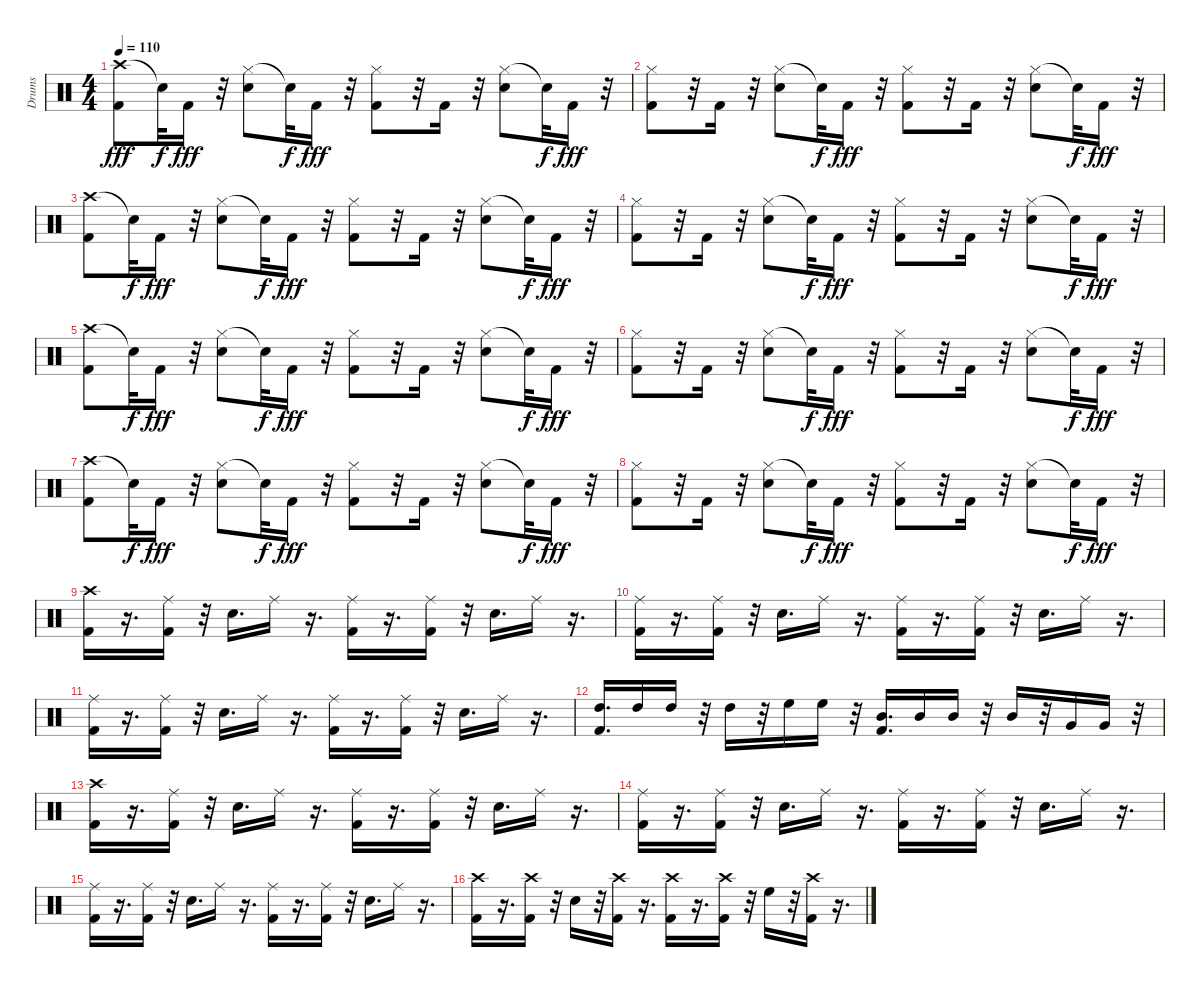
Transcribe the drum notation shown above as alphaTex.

\track ("Drums" "Drums") {instrument percussion}
\staff {score}
\articulation defaults
\ts (4 4)
\tempo 110
\clef neutral
\ks c
("Crash high (hit)" "Kick (hit) 2").8{dy fff} "Snare (hit)"{t}.32{dy f} "Kick (hit) 2".16{dy fff} r.32 ("Hi-Hat (closed)" "Snare (hit) 2").8 "Snare (hit)"{t}.32{dy f} "Kick (hit) 2".16{dy fff} r.32 ("Kick (hit) 2" "Hi-Hat (closed)").8 r.32 "Kick (hit) 2".16 r.32 ("Hi-Hat (closed)" "Snare (hit) 2").8 "Snare (hit)"{t}.32{dy f} "Kick (hit) 2".16{dy fff} r.32 |
("Kick (hit) 2" "Hi-Hat (closed)").8 r.32 "Kick (hit) 2".16 r.32 ("Hi-Hat (closed)" "Snare (hit) 2").8 "Snare (hit)"{t}.32{dy f} "Kick (hit) 2".16{dy fff} r.32 ("Kick (hit) 2" "Hi-Hat (closed)").8 r.32 "Kick (hit) 2".16 r.32 ("Hi-Hat (closed)" "Snare (hit) 2").8 "Snare (hit)"{t}.32{dy f} "Kick (hit) 2".16{dy fff} r.32 |
("Crash high (hit)" "Kick (hit) 2").8 "Snare (hit)"{t}.32{dy f} "Kick (hit) 2".16{dy fff} r.32 ("Hi-Hat (closed)" "Snare (hit) 2").8 "Snare (hit)"{t}.32{dy f} "Kick (hit) 2".16{dy fff} r.32 ("Kick (hit) 2" "Hi-Hat (closed)").8 r.32 "Kick (hit) 2".16 r.32 ("Hi-Hat (closed)" "Snare (hit) 2").8 "Snare (hit)"{t}.32{dy f} "Kick (hit) 2".16{dy fff} r.32 |
("Kick (hit) 2" "Hi-Hat (closed)").8 r.32 "Kick (hit) 2".16 r.32 ("Hi-Hat (closed)" "Snare (hit) 2").8 "Snare (hit)"{t}.32{dy f} "Kick (hit) 2".16{dy fff} r.32 ("Kick (hit) 2" "Hi-Hat (closed)").8 r.32 "Kick (hit) 2".16 r.32 ("Hi-Hat (closed)" "Snare (hit) 2").8 "Snare (hit)"{t}.32{dy f} "Kick (hit) 2".16{dy fff} r.32 |
("Crash high (hit)" "Kick (hit) 2").8 "Snare (hit)"{t}.32{dy f} "Kick (hit) 2".16{dy fff} r.32 ("Hi-Hat (closed)" "Snare (hit) 2").8 "Snare (hit)"{t}.32{dy f} "Kick (hit) 2".16{dy fff} r.32 ("Kick (hit) 2" "Hi-Hat (closed)").8 r.32 "Kick (hit) 2".16 r.32 ("Hi-Hat (closed)" "Snare (hit) 2").8 "Snare (hit)"{t}.32{dy f} "Kick (hit) 2".16{dy fff} r.32 |
("Kick (hit) 2" "Hi-Hat (closed)").8 r.32 "Kick (hit) 2".16 r.32 ("Hi-Hat (closed)" "Snare (hit) 2").8 "Snare (hit)"{t}.32{dy f} "Kick (hit) 2".16{dy fff} r.32 ("Kick (hit) 2" "Hi-Hat (closed)").8 r.32 "Kick (hit) 2".16 r.32 ("Hi-Hat (closed)" "Snare (hit) 2").8 "Snare (hit)"{t}.32{dy f} "Kick (hit) 2".16{dy fff} r.32 |
("Crash high (hit)" "Kick (hit) 2").8 "Snare (hit)"{t}.32{dy f} "Kick (hit) 2".16{dy fff} r.32 ("Hi-Hat (closed)" "Snare (hit) 2").8 "Snare (hit)"{t}.32{dy f} "Kick (hit) 2".16{dy fff} r.32 ("Kick (hit) 2" "Hi-Hat (closed)").8 r.32 "Kick (hit) 2".16 r.32 ("Hi-Hat (closed)" "Snare (hit) 2").8 "Snare (hit)"{t}.32{dy f} "Kick (hit) 2".16{dy fff} r.32 |
("Kick (hit) 2" "Hi-Hat (closed)").8 r.32 "Kick (hit) 2".16 r.32 ("Hi-Hat (closed)" "Snare (hit) 2").8 "Snare (hit)"{t}.32{dy f} "Kick (hit) 2".16{dy fff} r.32 ("Kick (hit) 2" "Hi-Hat (closed)").8 r.32 "Kick (hit) 2".16 r.32 ("Hi-Hat (closed)" "Snare (hit) 2").8 "Snare (hit)"{t}.32{dy f} "Kick (hit) 2".16{dy fff} r.32 |
("Kick (hit) 2" "Crash high (hit)").16 r.16{d} ("Kick (hit) 2" "Ride (middle)").16 r.32 "Snare (hit) 2".16{d} "Ride (middle)".16 r.16{d} ("Kick (hit) 2" "Ride (middle)").16 r.16{d} ("Kick (hit) 2" "Ride (middle)").16 r.32 "Snare (hit) 2".16{d} "Ride (middle)".16 r.16{d} |
("Kick (hit) 2" "Ride (middle)").16 r.16{d} ("Kick (hit) 2" "Ride (middle)").16 r.32 "Snare (hit) 2".16{d} "Ride (middle)".16 r.16{d} ("Kick (hit) 2" "Ride (middle)").16 r.16{d} ("Kick (hit) 2" "Ride (middle)").16 r.32 "Snare (hit) 2".16{d} "Ride (middle)".16 r.16{d} |
("Kick (hit) 2" "Ride (middle)").16 r.16{d} ("Kick (hit) 2" "Ride (middle)").16 r.32 "Snare (hit) 2".16{d} "Ride (middle)".16 r.16{d} ("Kick (hit) 2" "Ride (middle)").16 r.16{d} ("Kick (hit) 2" "Ride (middle)").16 r.32 "Snare (hit) 2".16{d} "Ride (middle)".16 r.16{d} |
("Kick (hit) 2" "High Tom (hit)").16{d} "High Tom (hit)".16 "High Tom (hit)".16 r.32 "High Tom (hit)".16 r.32 "High Floor Tom (hit)".16 "High Floor Tom (hit)".16 r.32 ("Mid Tom (hit)" "Kick (hit) 2").16{d} "Mid Tom (hit)".16 "Mid Tom (hit)".16 r.32 "Mid Tom (hit)".16 r.32 "Very Low Tom (hit)".16 "Very Low Tom (hit)".16 r.32 |
("Kick (hit) 2" "Crash high (hit)").16 r.16{d} ("Kick (hit) 2" "Ride (middle)").16 r.32 "Snare (hit) 2".16{d} "Ride (middle)".16 r.16{d} ("Kick (hit) 2" "Ride (middle)").16 r.16{d} ("Kick (hit) 2" "Ride (middle)").16 r.32 "Snare (hit) 2".16{d} "Ride (middle)".16 r.16{d} |
("Kick (hit) 2" "Ride (middle)").16 r.16{d} ("Kick (hit) 2" "Ride (middle)").16 r.32 "Snare (hit) 2".16{d} "Ride (middle)".16 r.16{d} ("Kick (hit) 2" "Ride (middle)").16 r.16{d} ("Kick (hit) 2" "Ride (middle)").16 r.32 "Snare (hit) 2".16{d} "Ride (middle)".16 r.16{d} |
("Kick (hit) 2" "Ride (middle)").16 r.16{d} ("Kick (hit) 2" "Ride (middle)").16 r.32 "Snare (hit) 2".16{d} "Ride (middle)".16 r.16{d} ("Kick (hit) 2" "Ride (middle)").16 r.16{d} ("Kick (hit) 2" "Ride (middle)").16 r.32 "Snare (hit) 2".16{d} "Ride (middle)".16 r.16{d} |
("Crash high (hit)" "Kick (hit) 2").16 r.16{d} ("Crash high (hit)" "Kick (hit) 2").16 r.32 "Snare (hit) 2".16 r.32 ("Kick (hit) 2" "Crash high (hit)").16 r.16{d} ("Crash high (hit)" "Kick (hit) 2").16 r.16{d} ("Crash high (hit)" "Kick (hit) 2").16 r.32 "High Floor Tom (hit)".16 r.32 ("Crash high (hit)" "Kick (hit) 2").16 r.16{d}
